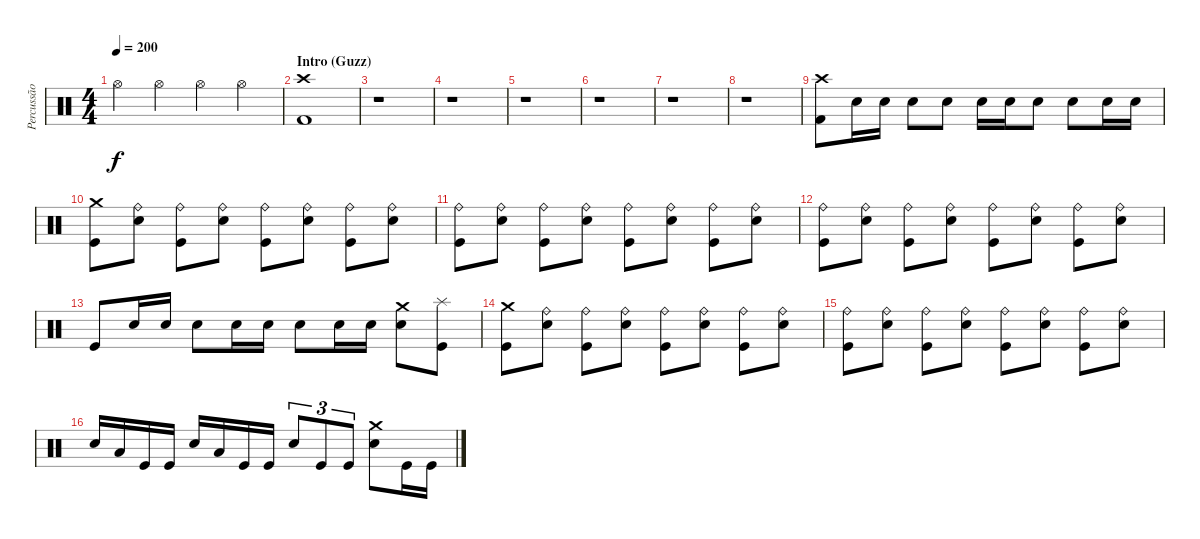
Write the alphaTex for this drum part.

\track ("Percussão" "Percussão") {instrument percussion}
\staff {score}
\articulation defaults
\ts (4 4)
\tempo 200
\clef neutral
\ks c "Hi-Hat (open)".4{dy f} "Hi-Hat (open)".4 "Hi-Hat (open)".4 "Hi-Hat (open)".4
|
\section ("" "Intro (Guzz)")
("Kick (hit) 2" "Crash high (hit)").1 |
r.1 |
r.1 |
r.1 |
r.1 |
r.1 |
r.1 |
("Crash high (hit)" "Kick (hit) 2").8 "Electric Snare (hit)".16 "Electric Snare (hit)".16 "Electric Snare (hit)".8 "Electric Snare (hit)".8 "Electric Snare (hit)".16 "Electric Snare (hit)".16 "Electric Snare (hit)".8 "Electric Snare (hit)".8 "Electric Snare (hit)".16 "Electric Snare (hit)".16 |
("Crash medium (hit)" "Kick (hit)").8 ("Ride (bell)" "Electric Snare (hit)").8 ("Ride (bell)" "Kick (hit)").8 ("Ride (bell)" "Electric Snare (hit)").8 ("Ride (bell)" "Kick (hit)").8 ("Ride (bell)" "Electric Snare (hit)").8 ("Ride (bell)" "Kick (hit)").8 ("Ride (bell)" "Electric Snare (hit)").8 |
("Ride (bell)" "Kick (hit)").8 ("Ride (bell)" "Electric Snare (hit)").8 ("Ride (bell)" "Kick (hit)").8 ("Ride (bell)" "Electric Snare (hit)").8 ("Ride (bell)" "Kick (hit)").8 ("Ride (bell)" "Electric Snare (hit)").8 ("Ride (bell)" "Kick (hit)").8 ("Ride (bell)" "Electric Snare (hit)").8 |
("Ride (bell)" "Kick (hit)").8 ("Ride (bell)" "Electric Snare (hit)").8 ("Ride (bell)" "Kick (hit)").8 ("Ride (bell)" "Electric Snare (hit)").8 ("Ride (bell)" "Kick (hit)").8 ("Ride (bell)" "Electric Snare (hit)").8 ("Ride (bell)" "Kick (hit)").8 ("Ride (bell)" "Electric Snare (hit)").8 |
"Kick (hit)".8 "Electric Snare (hit)".16 "Electric Snare (hit)".16 "Electric Snare (hit)".8 "Electric Snare (hit)".16 "Electric Snare (hit)".16 "Electric Snare (hit)".8 "Electric Snare (hit)".16 "Electric Snare (hit)".16 ("Crash medium (hit)" "Electric Snare (hit)").8 ("Splash (hit)" "Kick (hit)").8 |
("Crash medium (hit)" "Kick (hit)").8 ("Ride (bell)" "Electric Snare (hit)").8 ("Ride (bell)" "Kick (hit)").8 ("Ride (bell)" "Electric Snare (hit)").8 ("Ride (bell)" "Kick (hit)").8 ("Ride (bell)" "Electric Snare (hit)").8 ("Ride (bell)" "Kick (hit)").8 ("Ride (bell)" "Electric Snare (hit)").8 |
("Ride (bell)" "Kick (hit)").8 ("Ride (bell)" "Electric Snare (hit)").8 ("Ride (bell)" "Kick (hit)").8 ("Ride (bell)" "Electric Snare (hit)").8 ("Ride (bell)" "Kick (hit)").8 ("Ride (bell)" "Electric Snare (hit)").8 ("Ride (bell)" "Kick (hit)").8 ("Ride (bell)" "Electric Snare (hit)").8 |
"Electric Snare (hit)".16 "Low Tom (hit)".16 "Kick (hit)".16 "Kick (hit)".16 "Electric Snare (hit)".16 "Low Tom (hit)".16 "Kick (hit)".16 "Kick (hit)".16 "Electric Snare (hit)".8{tu (3 2)} "Kick (hit)".8{tu (3 2)} "Kick (hit)".8{tu (3 2)} ("Crash medium (hit)" "Electric Snare (hit)").8 "Kick (hit)".16 "Kick (hit)".16
